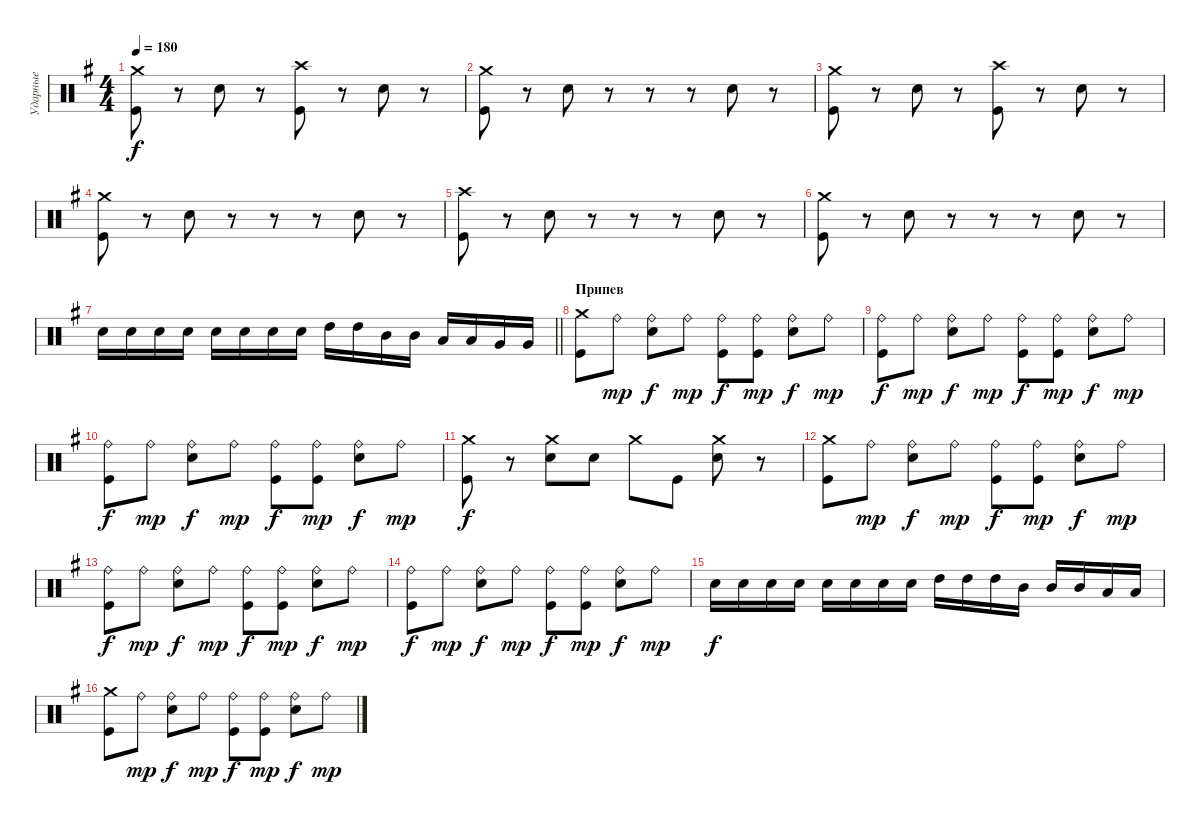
\track ("Ударные" "Ударные") {instrument percussion}
\staff {score}
\articulation defaults
\ts (4 4)
\tempo 180
\clef neutral
\ks g
("Crash medium (hit)" "Kick (hit)").8{dy f} r.8 "Electric Snare (hit)".8 r.8 ("Crash high (hit)" "Kick (hit)").8 r.8 "Electric Snare (hit)".8 r.8 |
("Crash medium (hit)" "Kick (hit)").8 r.8 "Electric Snare (hit)".8 r.8 r.8 r.8 "Electric Snare (hit)".8 r.8 |
("Crash medium (hit)" "Kick (hit)").8 r.8 "Electric Snare (hit)".8 r.8 ("Crash high (hit)" "Kick (hit)").8 r.8 "Electric Snare (hit)".8 r.8 |
("Crash medium (hit)" "Kick (hit)").8 r.8 "Electric Snare (hit)".8 r.8 r.8 r.8 "Electric Snare (hit)".8 r.8 |
("Crash high (hit)" "Kick (hit)").8 r.8 "Electric Snare (hit)".8 r.8 r.8 r.8 "Electric Snare (hit)".8 r.8 |
("Crash medium (hit)" "Kick (hit)").8 r.8 "Electric Snare (hit)".8 r.8 r.8 r.8 "Electric Snare (hit)".8 r.8 |
\barLineRight lightlight "Electric Snare (hit)".16 "Electric Snare (hit)".16 "Electric Snare (hit)".16 "Electric Snare (hit)".16 "Electric Snare (hit)".16 "Electric Snare (hit)".16 "Electric Snare (hit)".16 "Electric Snare (hit)".16 "High Tom (hit)".16 "High Tom (hit)".16 "Mid Tom (hit)".16 "Mid Tom (hit)".16 "Low Tom (hit)".16 "Low Tom (hit)".16 "Very Low Tom (hit)".16 "Very Low Tom (hit)".16
|
\section ("" "Припев")
("Crash medium (hit)" "Kick (hit)").8 "Ride (bell)".8{dy mp} ("Ride (bell)" "Electric Snare (hit)").8{dy f} "Ride (bell)".8{dy mp} ("Ride (bell)" "Kick (hit)").8{dy f} ("Ride (bell)" "Kick (hit)").8{dy mp} ("Ride (bell)" "Electric Snare (hit)").8{dy f} "Ride (bell)".8{dy mp} |
("Ride (bell)" "Kick (hit)").8{dy f} "Ride (bell)".8{dy mp} ("Ride (bell)" "Electric Snare (hit)").8{dy f} "Ride (bell)".8{dy mp} ("Ride (bell)" "Kick (hit)").8{dy f} ("Ride (bell)" "Kick (hit)").8{dy mp} ("Ride (bell)" "Electric Snare (hit)").8{dy f} "Ride (bell)".8{dy mp} |
("Ride (bell)" "Kick (hit)").8{dy f} "Ride (bell)".8{dy mp} ("Ride (bell)" "Electric Snare (hit)").8{dy f} "Ride (bell)".8{dy mp} ("Ride (bell)" "Kick (hit)").8{dy f} ("Ride (bell)" "Kick (hit)").8{dy mp} ("Ride (bell)" "Electric Snare (hit)").8{dy f} "Ride (bell)".8{dy mp} |
("Crash medium (hit)" "Kick (hit)").8{dy f} r.8 ("Crash medium (hit)" "Electric Snare (hit)").8 "Electric Snare (hit)".8 "Crash medium (hit)".8 "Kick (hit)".8 ("Crash medium (hit)" "Electric Snare (hit)").8 r.8 |
("Crash medium (hit)" "Kick (hit)").8 "Ride (bell)".8{dy mp} ("Ride (bell)" "Electric Snare (hit)").8{dy f} "Ride (bell)".8{dy mp} ("Ride (bell)" "Kick (hit)").8{dy f} ("Ride (bell)" "Kick (hit)").8{dy mp} ("Ride (bell)" "Electric Snare (hit)").8{dy f} "Ride (bell)".8{dy mp} |
("Ride (bell)" "Kick (hit)").8{dy f} "Ride (bell)".8{dy mp} ("Ride (bell)" "Electric Snare (hit)").8{dy f} "Ride (bell)".8{dy mp} ("Ride (bell)" "Kick (hit)").8{dy f} ("Ride (bell)" "Kick (hit)").8{dy mp} ("Ride (bell)" "Electric Snare (hit)").8{dy f} "Ride (bell)".8{dy mp} |
("Ride (bell)" "Kick (hit)").8{dy f} "Ride (bell)".8{dy mp} ("Ride (bell)" "Electric Snare (hit)").8{dy f} "Ride (bell)".8{dy mp} ("Ride (bell)" "Kick (hit)").8{dy f} ("Ride (bell)" "Kick (hit)").8{dy mp} ("Ride (bell)" "Electric Snare (hit)").8{dy f} "Ride (bell)".8{dy mp} |
"Electric Snare (hit)".16{dy f} "Electric Snare (hit)".16 "Electric Snare (hit)".16 "Electric Snare (hit)".16 "Electric Snare (hit)".16 "Electric Snare (hit)".16 "Electric Snare (hit)".16 "Electric Snare (hit)".16 "High Tom (hit)".16 "High Tom (hit)".16 "High Tom (hit)".16 "Mid Tom (hit)".16 "Mid Tom (hit)".16 "Mid Tom (hit)".16 "Low Tom (hit)".16 "Low Tom (hit)".16 |
("Crash medium (hit)" "Kick (hit)").8 "Ride (bell)".8{dy mp} ("Ride (bell)" "Electric Snare (hit)").8{dy f} "Ride (bell)".8{dy mp} ("Ride (bell)" "Kick (hit)").8{dy f} ("Ride (bell)" "Kick (hit)").8{dy mp} ("Ride (bell)" "Electric Snare (hit)").8{dy f} "Ride (bell)".8{dy mp}
